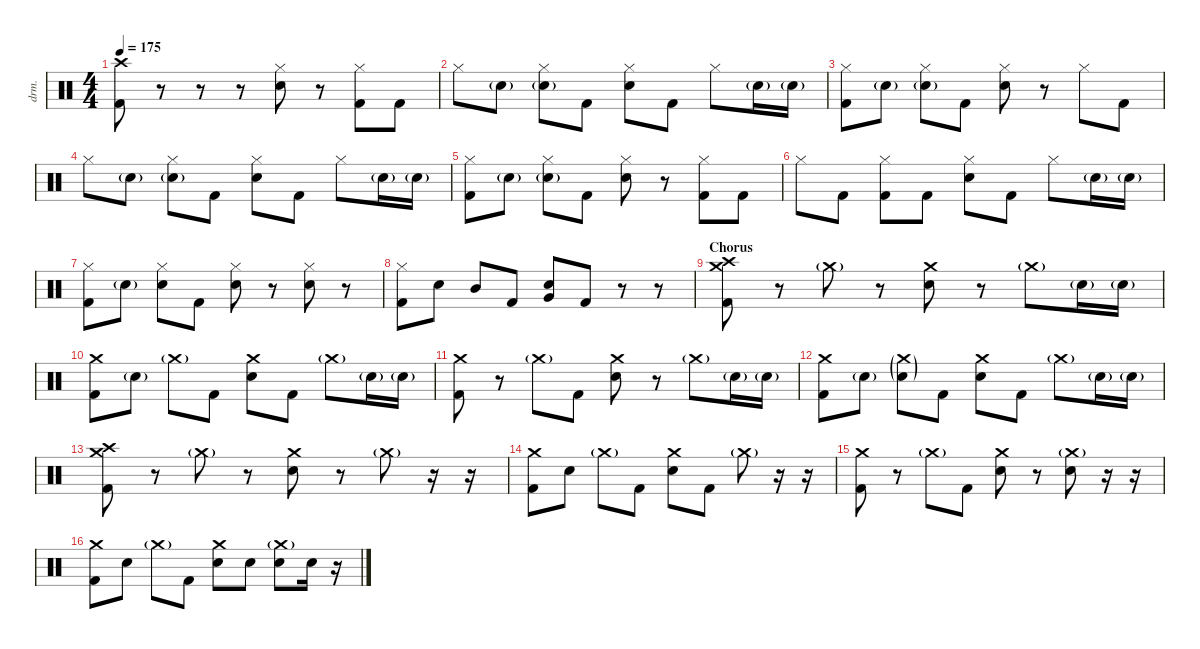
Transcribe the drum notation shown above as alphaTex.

\defaultSystemsLayout 4
\hideDynamics
\bracketExtendMode nobrackets
\track ("Drums - Mario" "drm.") {instrument percussion}
\staff {score}
\articulation defaults
\ts (4 4)
\tempo 175
\clef neutral
\ks c
("Kick (hit) 2" "Crash high (hit)").8{dy ff} r.8 r.8 r.8 ("Hi-Hat (closed)" "Snare (hit) 2").8 r.8 ("Hi-Hat (closed)" "Kick (hit) 2").8 "Kick (hit) 2".8 |
"Hi-Hat (closed)".8 "Snare (hit) 2"{g}.8 ("Hi-Hat (closed)" "Snare (hit) 2"{g}).8 "Kick (hit) 2".8 ("Hi-Hat (closed)" "Snare (hit) 2").8 "Kick (hit) 2".8 "Hi-Hat (closed)".8 "Snare (hit) 2"{g}.16 "Snare (hit) 2"{g}.16 |
("Hi-Hat (closed)" "Kick (hit) 2").8 "Snare (hit) 2"{g}.8 ("Hi-Hat (closed)" "Snare (hit) 2"{g}).8 "Kick (hit) 2".8 ("Hi-Hat (closed)" "Snare (hit) 2").8 r.8 "Hi-Hat (closed)".8 "Kick (hit) 2".8 |
"Hi-Hat (closed)".8 "Snare (hit) 2"{g}.8 ("Hi-Hat (closed)" "Snare (hit) 2"{g}).8 "Kick (hit) 2".8 ("Hi-Hat (closed)" "Snare (hit) 2").8 "Kick (hit) 2".8 "Hi-Hat (closed)".8 "Snare (hit) 2"{g}.16 "Snare (hit) 2"{g}.16 |
("Hi-Hat (closed)" "Kick (hit) 2").8 "Snare (hit) 2"{g}.8 ("Hi-Hat (closed)" "Snare (hit) 2"{g}).8 "Kick (hit) 2".8 ("Hi-Hat (closed)" "Snare (hit) 2").8 r.8 ("Hi-Hat (closed)" "Kick (hit) 2").8 "Kick (hit) 2".8 |
"Hi-Hat (closed)".8 "Kick (hit) 2".8 ("Hi-Hat (closed)" "Kick (hit) 2").8 "Kick (hit) 2".8 ("Hi-Hat (closed)" "Snare (hit) 2").8 "Kick (hit) 2".8 "Hi-Hat (closed)".8 "Snare (hit) 2"{g}.16 "Snare (hit) 2"{g}.16 |
("Hi-Hat (closed)" "Kick (hit) 2").8 "Snare (hit) 2"{g}.8 ("Hi-Hat (closed)" "Snare (hit) 2").8 "Kick (hit) 2".8 ("Hi-Hat (closed)" "Snare (hit) 2").8 r.8 ("Hi-Hat (closed)" "Snare (hit) 2").8 r.8 |
("Hi-Hat (closed)" "Kick (hit) 2").8 "Snare (hit) 2".8 "Mid Tom (hit)".8 "Kick (hit) 2".8 ("Snare (hit) 2" "Very Low Tom (hit)").8 "Kick (hit) 2".8 r.8 r.8 |
\section ("" "Chorus")
("Crash medium (hit)" "Crash high (hit)" "Kick (hit) 2").8 r.8 "Crash medium (hit)"{g}.8 r.8 ("Crash medium (hit)" "Snare (hit) 2").8 r.8 "Crash medium (hit)"{g}.8 "Snare (hit) 2"{g}.16 "Snare (hit) 2"{g}.16 |
("Crash medium (hit)" "Kick (hit) 2").8 "Snare (hit) 2"{g}.8 "Crash medium (hit)"{g}.8 "Kick (hit) 2".8 ("Crash medium (hit)" "Snare (hit) 2").8 "Kick (hit) 2".8 "Crash medium (hit)"{g}.8 "Snare (hit) 2"{g}.16 "Snare (hit) 2"{g}.16 |
("Crash medium (hit)" "Kick (hit) 2").8 r.8 "Crash medium (hit)"{g}.8 "Kick (hit) 2".8 ("Crash medium (hit)" "Snare (hit) 2").8 r.8 "Crash medium (hit)"{g}.8 "Snare (hit) 2"{g}.16 "Snare (hit) 2"{g}.16 |
("Crash medium (hit)" "Kick (hit) 2").8 "Snare (hit) 2"{g}.8 ("Crash medium (hit)"{g} "Snare (hit) 2"{g}).8 "Kick (hit) 2".8 ("Crash medium (hit)" "Snare (hit) 2").8 "Kick (hit) 2".8 "Crash medium (hit)"{g}.8 "Snare (hit) 2"{g}.16 "Snare (hit) 2"{g}.16 |
("Crash medium (hit)" "Crash high (hit)" "Kick (hit) 2").8 r.8 "Crash medium (hit)"{g}.8 r.8 ("Crash medium (hit)" "Snare (hit) 2").8 r.8 "Crash medium (hit)"{g}.8 r.16 r.16 |
("Crash medium (hit)" "Kick (hit) 2").8 "Snare (hit) 2".8 "Crash medium (hit)"{g}.8 "Kick (hit) 2".8 ("Crash medium (hit)" "Snare (hit) 2").8 "Kick (hit) 2".8 "Crash medium (hit)"{g}.8 r.16 r.16 |
("Crash medium (hit)" "Kick (hit) 2").8 r.8 "Crash medium (hit)"{g}.8 "Kick (hit) 2".8 ("Crash medium (hit)" "Snare (hit) 2").8 r.8 ("Crash medium (hit)"{g} "Snare (hit) 2").8 r.16 r.16 |
("Crash medium (hit)" "Kick (hit) 2").8 "Snare (hit) 2".8 "Crash medium (hit)"{g}.8 "Kick (hit) 2".8 ("Crash medium (hit)" "Snare (hit) 2").8 "Snare (hit) 2".8 ("Crash medium (hit)"{g} "Snare (hit) 2").8 "Snare (hit) 2".16 r.16
